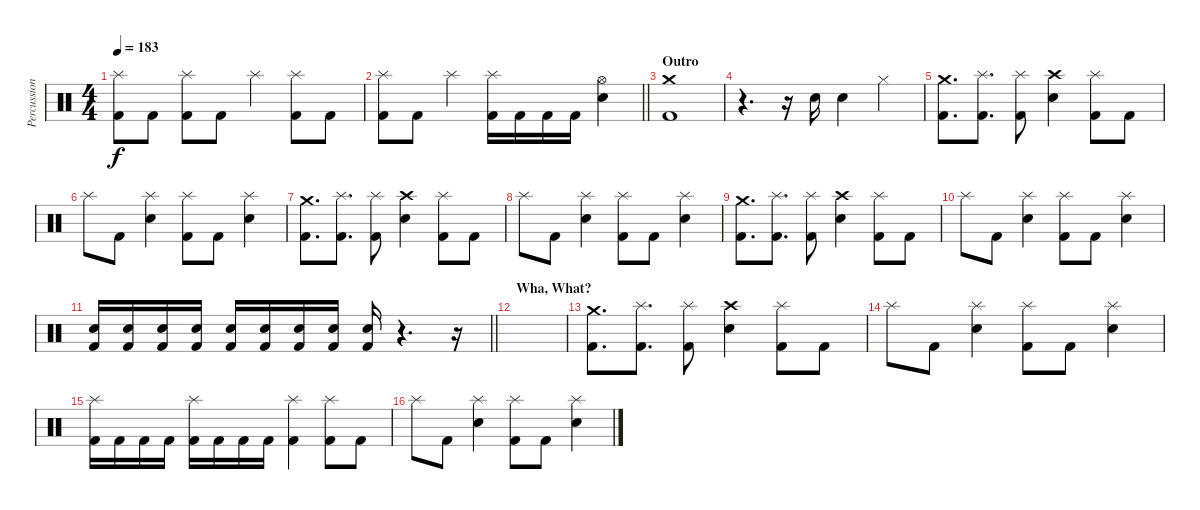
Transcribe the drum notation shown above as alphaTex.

\track ("Percussion" "Percussion") {instrument percussion}
\staff {score}
\articulation defaults
\ts (4 4)
\tempo 183
\clef neutral
\ks c
("Splash (hit)" "Kick (hit) 2").8{dy f} "Kick (hit) 2".8 ("Splash (hit)" "Kick (hit) 2").8 "Kick (hit) 2".8 "Splash (hit)".4 ("Splash (hit)" "Kick (hit) 2").8 "Kick (hit) 2".8 |
\barLineRight lightlight
("Splash (hit)" "Kick (hit) 2").8 "Kick (hit) 2".8 "Splash (hit)".4 ("Splash (hit)" "Kick (hit) 2").16 "Kick (hit) 2".16 "Kick (hit) 2".16 "Kick (hit) 2".16 ("Hi-Hat (open)" "Electric Snare (hit)").4 |
\section ("" "Outro")
("Crash medium (hit)" "Kick (hit) 2").1 |
r.4{d} r.16 "Electric Snare (hit)".16 "Electric Snare (hit)".4 "Hi-Hat (closed)".4 |
("Crash medium (hit)" "Kick (hit) 2").8{d} ("Splash (hit)" "Kick (hit) 2").8{d} ("Splash (hit)" "Kick (hit) 2").8 ("Crash high (hit)" "Electric Snare (hit)").4 ("Splash (hit)" "Kick (hit) 2").8 "Kick (hit) 2".8 |
"Splash (hit)".8 "Kick (hit) 2".8 ("Splash (hit)" "Electric Snare (hit)").4 ("Splash (hit)" "Kick (hit) 2").8 "Kick (hit) 2".8 ("Splash (hit)" "Electric Snare (hit)").4 |
("Crash medium (hit)" "Kick (hit) 2").8{d} ("Splash (hit)" "Kick (hit) 2").8{d} ("Splash (hit)" "Kick (hit) 2").8 ("Crash high (hit)" "Electric Snare (hit)").4 ("Splash (hit)" "Kick (hit) 2").8 "Kick (hit) 2".8 |
"Splash (hit)".8 "Kick (hit) 2".8 ("Splash (hit)" "Electric Snare (hit)").4 ("Splash (hit)" "Kick (hit) 2").8 "Kick (hit) 2".8 ("Splash (hit)" "Electric Snare (hit)").4 |
("Crash medium (hit)" "Kick (hit) 2").8{d} ("Splash (hit)" "Kick (hit) 2").8{d} ("Splash (hit)" "Kick (hit) 2").8 ("Crash high (hit)" "Electric Snare (hit)").4 ("Splash (hit)" "Kick (hit) 2").8 "Kick (hit) 2".8 |
"Splash (hit)".8 "Kick (hit) 2".8 ("Splash (hit)" "Electric Snare (hit)").4 ("Splash (hit)" "Kick (hit) 2").8 "Kick (hit) 2".8 ("Splash (hit)" "Electric Snare (hit)").4 |
\barLineRight lightlight
("Electric Snare (hit)" "Kick (hit) 2").16 ("Electric Snare (hit)" "Kick (hit) 2").16 ("Electric Snare (hit)" "Kick (hit) 2").16 ("Electric Snare (hit)" "Kick (hit) 2").16 ("Electric Snare (hit)" "Kick (hit) 2").16 ("Electric Snare (hit)" "Kick (hit) 2").16 ("Electric Snare (hit)" "Kick (hit) 2").16 ("Electric Snare (hit)" "Kick (hit) 2").16 ("Electric Snare (hit)" "Kick (hit) 2").16 r.4{d} r.16 |
\section ("" "Wha, What?")
|
("Crash medium (hit)" "Kick (hit) 2").8{d} ("Splash (hit)" "Kick (hit) 2").8{d} ("Splash (hit)" "Kick (hit) 2").8 ("Crash high (hit)" "Electric Snare (hit)").4 ("Splash (hit)" "Kick (hit) 2").8 "Kick (hit) 2".8 |
"Splash (hit)".8 "Kick (hit) 2".8 ("Splash (hit)" "Electric Snare (hit)").4 ("Splash (hit)" "Kick (hit) 2").8 "Kick (hit) 2".8 ("Splash (hit)" "Electric Snare (hit)").4 |
("Splash (hit)" "Kick (hit) 2").16 "Kick (hit) 2".16 "Kick (hit) 2".16 "Kick (hit) 2".16 ("Splash (hit)" "Kick (hit) 2").16 "Kick (hit) 2".16 "Kick (hit) 2".16 "Kick (hit) 2".16 ("Splash (hit)" "Kick (hit) 2").4 ("Splash (hit)" "Kick (hit) 2").8 "Kick (hit) 2".8 |
"Splash (hit)".8 "Kick (hit) 2".8 ("Splash (hit)" "Electric Snare (hit)").4 ("Splash (hit)" "Kick (hit) 2").8 "Kick (hit) 2".8 ("Splash (hit)" "Electric Snare (hit)").4
